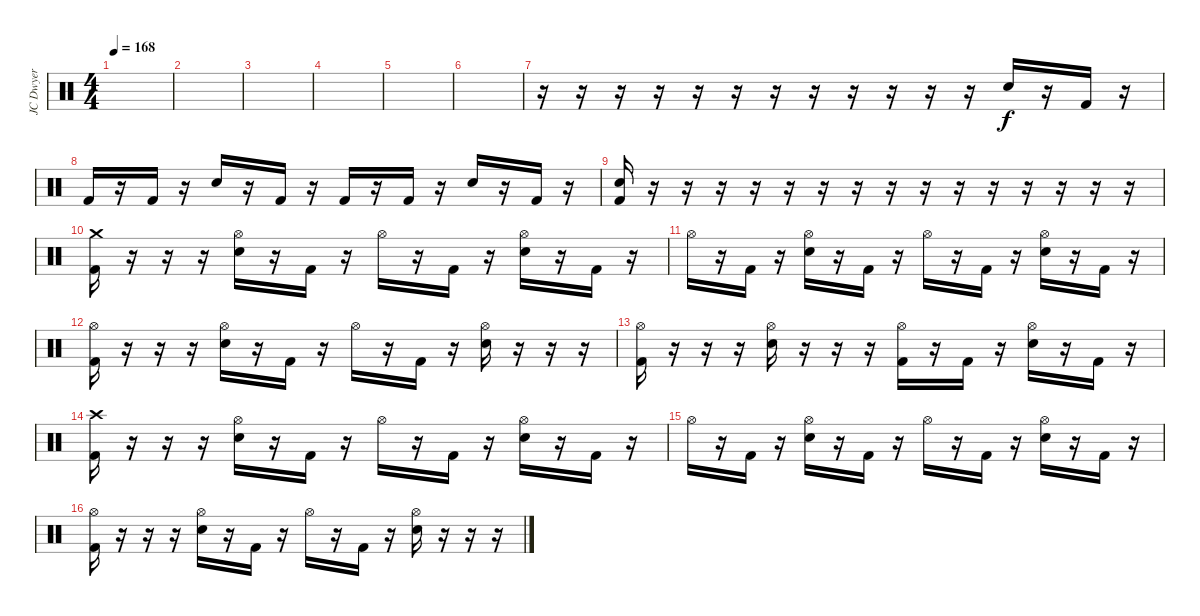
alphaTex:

\track ("JC Dwyer" "JC Dwyer") {instrument percussion}
\staff {score}
\articulation defaults
\ts (4 4)
\tempo 168
\clef neutral
\ks c
|
|
|
|
|
|
r.16 r.16 r.16 r.16 r.16 r.16 r.16 r.16 r.16 r.16 r.16 r.16 "Electric Snare (hit)".16 r.16 "Kick (hit) 2".16 r.16 |
"Kick (hit) 2".16 r.16 "Kick (hit) 2".16 r.16 "Electric Snare (hit)".16 r.16 "Kick (hit) 2".16 r.16 "Kick (hit) 2".16 r.16 "Kick (hit) 2".16 r.16 "Electric Snare (hit)".16 r.16 "Kick (hit) 2".16 r.16 |
("Electric Snare (hit)" "Kick (hit) 2").16 r.16 r.16 r.16 r.16 r.16 r.16 r.16 r.16 r.16 r.16 r.16 r.16 r.16 r.16 r.16 |
("Crash medium (hit)" "Kick (hit) 2").16 r.16 r.16 r.16 ("Hi-Hat (open)" "Electric Snare (hit)").16 r.16 "Kick (hit) 2".16 r.16 "Hi-Hat (open)".16 r.16 "Kick (hit) 2".16 r.16 ("Hi-Hat (open)" "Electric Snare (hit)").16 r.16 "Kick (hit) 2".16 r.16 |
"Hi-Hat (open)".16 r.16 "Kick (hit) 2".16 r.16 ("Hi-Hat (open)" "Electric Snare (hit)").16 r.16 "Kick (hit) 2".16 r.16 "Hi-Hat (open)".16 r.16 "Kick (hit) 2".16 r.16 ("Hi-Hat (open)" "Electric Snare (hit)").16 r.16 "Kick (hit) 2".16 r.16 |
("Hi-Hat (open)" "Kick (hit) 2").16 r.16 r.16 r.16 ("Hi-Hat (open)" "Electric Snare (hit)").16 r.16 "Kick (hit) 2".16 r.16 "Hi-Hat (open)".16 r.16 "Kick (hit) 2".16 r.16 ("Hi-Hat (open)" "Electric Snare (hit)").16 r.16 r.16 r.16 |
("Hi-Hat (open)" "Kick (hit) 2").16 r.16 r.16 r.16 ("Hi-Hat (open)" "Electric Snare (hit)").16 r.16 r.16 r.16 ("Hi-Hat (open)" "Kick (hit) 2").16 r.16 "Kick (hit) 2".16 r.16 ("Hi-Hat (open)" "Electric Snare (hit)").16 r.16 "Kick (hit) 2".16 r.16 |
("Crash high (hit)" "Kick (hit) 2").16 r.16 r.16 r.16 ("Hi-Hat (open)" "Electric Snare (hit)").16 r.16 "Kick (hit) 2".16 r.16 "Hi-Hat (open)".16 r.16 "Kick (hit) 2".16 r.16 ("Hi-Hat (open)" "Electric Snare (hit)").16 r.16 "Kick (hit) 2".16 r.16 |
"Hi-Hat (open)".16 r.16 "Kick (hit) 2".16 r.16 ("Hi-Hat (open)" "Electric Snare (hit)").16 r.16 "Kick (hit) 2".16 r.16 "Hi-Hat (open)".16 r.16 "Kick (hit) 2".16 r.16 ("Hi-Hat (open)" "Electric Snare (hit)").16 r.16 "Kick (hit) 2".16 r.16 |
("Hi-Hat (open)" "Kick (hit) 2").16 r.16 r.16 r.16 ("Hi-Hat (open)" "Electric Snare (hit)").16 r.16 "Kick (hit) 2".16 r.16 "Hi-Hat (open)".16 r.16 "Kick (hit) 2".16 r.16 ("Hi-Hat (open)" "Electric Snare (hit)").16 r.16 r.16 r.16
